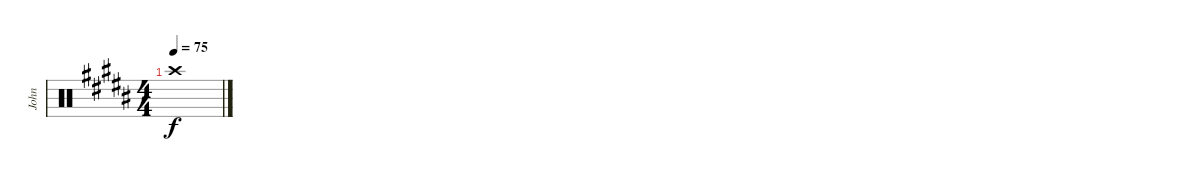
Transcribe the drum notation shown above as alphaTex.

\track ("John" "John") {instrument percussion}
\staff {score}
\articulation defaults
\ts (4 4)
\tempo 75
\clef neutral
\ks g#minor "Crash high (hit)".1{dy f}
